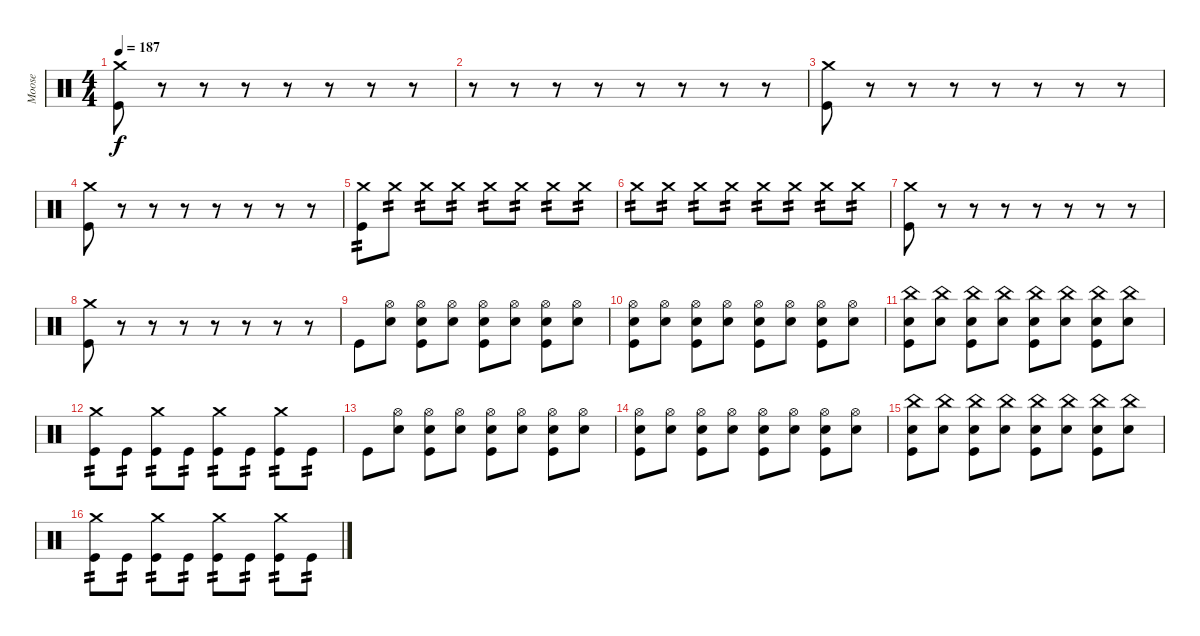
\track ("Moose" "Moose") {instrument percussion}
\staff {score}
\articulation defaults
\ts (4 4)
\tempo 187
\clef neutral
\ks c
("Crash medium (hit)" "Kick (hit)").8{dy f} r.8 r.8 r.8 r.8 r.8 r.8 r.8 |
r.8 r.8 r.8 r.8 r.8 r.8 r.8 r.8 |
("Crash medium (hit)" "Kick (hit)").8 r.8 r.8 r.8 r.8 r.8 r.8 r.8 |
("Crash medium (hit)" "Kick (hit)").8 r.8 r.8 r.8 r.8 r.8 r.8 r.8 |
("Crash medium (hit)" "Kick (hit)").8{tp 2} "Crash medium (hit)".8{tp 2} "Crash medium (hit)".8{tp 2} "Crash medium (hit)".8{tp 2} "Crash medium (hit)".8{tp 2} "Crash medium (hit)".8{tp 2} "Crash medium (hit)".8{tp 2} "Crash medium (hit)".8{tp 2} |
"Crash medium (hit)".8{tp 2} "Crash medium (hit)".8{tp 2} "Crash medium (hit)".8{tp 2} "Crash medium (hit)".8{tp 2} "Crash medium (hit)".8{tp 2} "Crash medium (hit)".8{tp 2} "Crash medium (hit)".8{tp 2} "Crash medium (hit)".8{tp 2} |
("Crash medium (hit)" "Kick (hit)").8 r.8 r.8 r.8 r.8 r.8 r.8 r.8 |
("Crash medium (hit)" "Kick (hit)").8 r.8 r.8 r.8 r.8 r.8 r.8 r.8 |
"Kick (hit)".8 ("Electric Snare (hit)" "Hi-Hat (open)").8 ("Electric Snare (hit)" "Hi-Hat (open)" "Kick (hit)").8 ("Electric Snare (hit)" "Hi-Hat (open)").8 ("Electric Snare (hit)" "Hi-Hat (open)" "Kick (hit)").8 ("Electric Snare (hit)" "Hi-Hat (open)").8 ("Electric Snare (hit)" "Hi-Hat (open)" "Kick (hit)").8 ("Electric Snare (hit)" "Hi-Hat (open)").8 |
("Electric Snare (hit)" "Hi-Hat (open)" "Kick (hit)").8 ("Electric Snare (hit)" "Hi-Hat (open)").8 ("Electric Snare (hit)" "Hi-Hat (open)" "Kick (hit)").8 ("Electric Snare (hit)" "Hi-Hat (open)").8 ("Electric Snare (hit)" "Hi-Hat (open)" "Kick (hit)").8 ("Electric Snare (hit)" "Hi-Hat (open)").8 ("Electric Snare (hit)" "Hi-Hat (open)" "Kick (hit)").8 ("Electric Snare (hit)" "Hi-Hat (open)").8 |
("Electric Snare (hit)" "China (hit)" "Kick (hit)").8 ("Electric Snare (hit)" "China (hit)").8 ("Electric Snare (hit)" "China (hit)" "Kick (hit)").8 ("Electric Snare (hit)" "China (hit)").8 ("Electric Snare (hit)" "China (hit)" "Kick (hit)").8 ("Electric Snare (hit)" "China (hit)").8 ("Electric Snare (hit)" "China (hit)" "Kick (hit)").8 ("Electric Snare (hit)" "China (hit)").8 |
("Crash medium (hit)" "Kick (hit)").8{tp 2} "Kick (hit)".8{tp 2} ("Crash medium (hit)" "Kick (hit)").8{tp 2} "Kick (hit)".8{tp 2} ("Crash medium (hit)" "Kick (hit)").8{tp 2} "Kick (hit)".8{tp 2} ("Crash medium (hit)" "Kick (hit)").8{tp 2} "Kick (hit)".8{tp 2} |
"Kick (hit)".8 ("Electric Snare (hit)" "Hi-Hat (open)").8 ("Electric Snare (hit)" "Hi-Hat (open)" "Kick (hit)").8 ("Electric Snare (hit)" "Hi-Hat (open)").8 ("Electric Snare (hit)" "Hi-Hat (open)" "Kick (hit)").8 ("Electric Snare (hit)" "Hi-Hat (open)").8 ("Electric Snare (hit)" "Hi-Hat (open)" "Kick (hit)").8 ("Electric Snare (hit)" "Hi-Hat (open)").8 |
("Electric Snare (hit)" "Hi-Hat (open)" "Kick (hit)").8 ("Electric Snare (hit)" "Hi-Hat (open)").8 ("Electric Snare (hit)" "Hi-Hat (open)" "Kick (hit)").8 ("Electric Snare (hit)" "Hi-Hat (open)").8 ("Electric Snare (hit)" "Hi-Hat (open)" "Kick (hit)").8 ("Electric Snare (hit)" "Hi-Hat (open)").8 ("Electric Snare (hit)" "Hi-Hat (open)" "Kick (hit)").8 ("Electric Snare (hit)" "Hi-Hat (open)").8 |
("Electric Snare (hit)" "China (hit)" "Kick (hit)").8 ("Electric Snare (hit)" "China (hit)").8 ("Electric Snare (hit)" "China (hit)" "Kick (hit)").8 ("Electric Snare (hit)" "China (hit)").8 ("Electric Snare (hit)" "China (hit)" "Kick (hit)").8 ("Electric Snare (hit)" "China (hit)").8 ("Electric Snare (hit)" "China (hit)" "Kick (hit)").8 ("Electric Snare (hit)" "China (hit)").8 |
("Crash medium (hit)" "Kick (hit)").8{tp 2} "Kick (hit)".8{tp 2} ("Crash medium (hit)" "Kick (hit)").8{tp 2} "Kick (hit)".8{tp 2} ("Crash medium (hit)" "Kick (hit)").8{tp 2} "Kick (hit)".8{tp 2} ("Crash medium (hit)" "Kick (hit)").8{tp 2} "Kick (hit)".8{tp 2}
